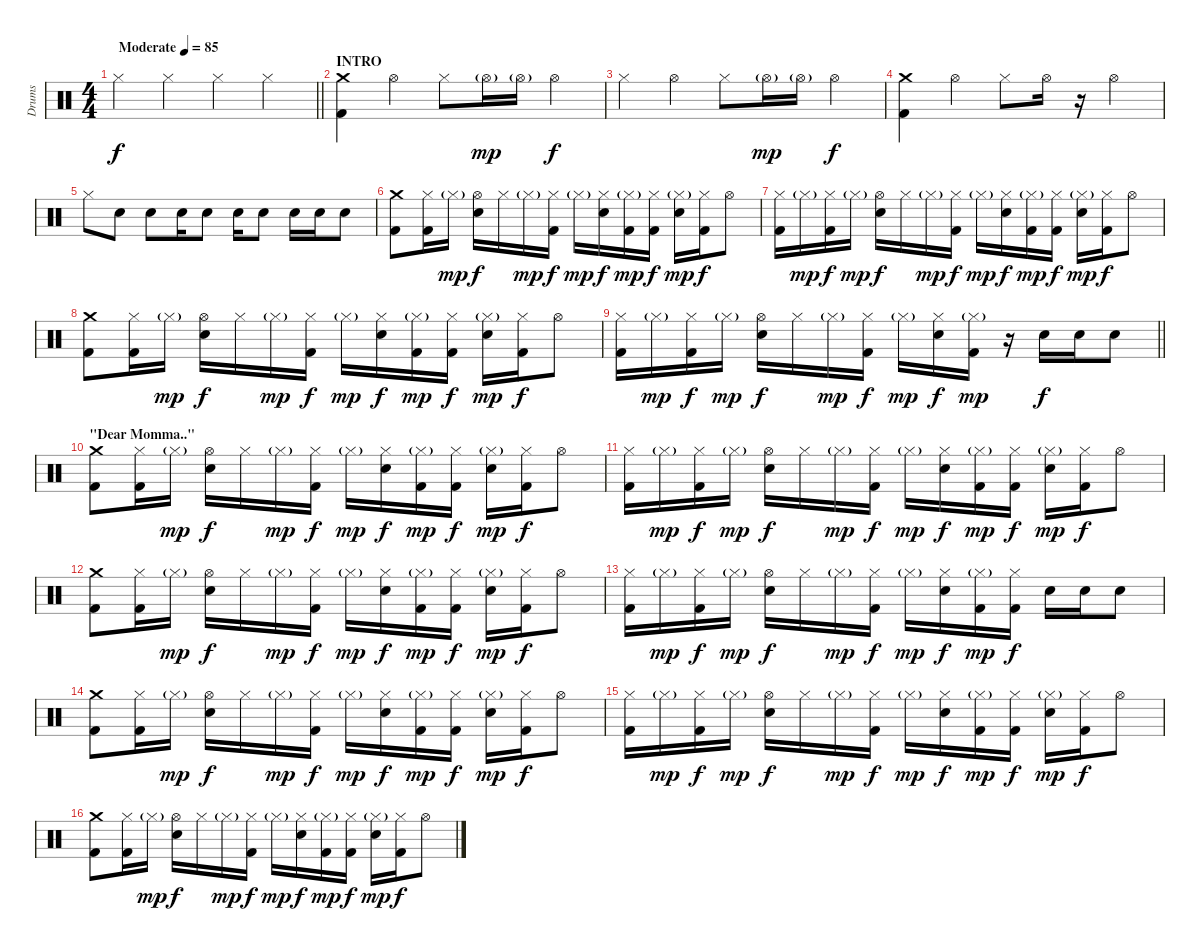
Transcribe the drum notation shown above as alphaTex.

\track ("Drums" "Drums") {instrument percussion}
\staff {score}
\articulation defaults
\ts (4 4)
\tempo (85 "Moderate")
\clef neutral
\barLineRight lightlight
\ks c "Hi-Hat (closed)".4{dy f} "Hi-Hat (closed)".4 "Hi-Hat (closed)".4 "Hi-Hat (closed)".4
|
\section ("" "INTRO")
("Crash medium (hit)" "Kick (hit) 2").4 "Hi-Hat (open)".4 "Hi-Hat (closed)".8 "Hi-Hat (open)"{g}.16{dy mp} "Hi-Hat (open)"{g}.16 "Hi-Hat (open)".4{dy f} |
"Hi-Hat (closed)".4 "Hi-Hat (open)".4 "Hi-Hat (closed)".8 "Hi-Hat (open)"{g}.16{dy mp} "Hi-Hat (open)"{g}.16 "Hi-Hat (open)".4{dy f} |
("Crash medium (hit)" "Kick (hit) 2").4 "Hi-Hat (open)".4 "Hi-Hat (closed)".8 "Hi-Hat (open)".16 r.16 "Hi-Hat (open)".4 |
"Hi-Hat (closed)".8 "Electric Snare (hit)".8 "Electric Snare (hit)".8 "Electric Snare (hit)".16 "Electric Snare (hit)".8 "Electric Snare (hit)".16 "Electric Snare (hit)".8 "Electric Snare (hit)".16 "Electric Snare (hit)".16 "Electric Snare (hit)".8 |
("Crash medium (hit)" "Kick (hit) 2").8 ("Hi-Hat (closed)" "Kick (hit) 2").16 "Hi-Hat (closed)"{g}.16{dy mp} ("Hi-Hat (open)" "Electric Snare (hit)").16{dy f} "Hi-Hat (closed)".16 "Hi-Hat (closed)"{g}.16{dy mp} ("Hi-Hat (closed)" "Kick (hit) 2").16{dy f} "Hi-Hat (closed)"{g}.16{dy mp} ("Hi-Hat (closed)" "Electric Snare (hit)").16{dy f} ("Hi-Hat (closed)"{g} "Kick (hit) 2").16{dy mp} ("Hi-Hat (closed)" "Kick (hit) 2").16{dy f} ("Hi-Hat (closed)"{g} "Electric Snare (hit)").16{dy mp} ("Hi-Hat (closed)" "Kick (hit) 2").16{dy f} "Hi-Hat (open)".8 |
("Hi-Hat (closed)" "Kick (hit) 2").16 "Hi-Hat (closed)"{g}.16{dy mp} ("Hi-Hat (closed)" "Kick (hit) 2").16{dy f} "Hi-Hat (closed)"{g}.16{dy mp} ("Hi-Hat (open)" "Electric Snare (hit)").16{dy f} "Hi-Hat (closed)".16 "Hi-Hat (closed)"{g}.16{dy mp} ("Hi-Hat (closed)" "Kick (hit) 2").16{dy f} "Hi-Hat (closed)"{g}.16{dy mp} ("Hi-Hat (closed)" "Electric Snare (hit)").16{dy f} ("Hi-Hat (closed)"{g} "Kick (hit) 2").16{dy mp} ("Hi-Hat (closed)" "Kick (hit) 2").16{dy f} ("Hi-Hat (closed)"{g} "Electric Snare (hit)").16{dy mp} ("Hi-Hat (closed)" "Kick (hit) 2").16{dy f} "Hi-Hat (open)".8 |
("Crash medium (hit)" "Kick (hit) 2").8 ("Hi-Hat (closed)" "Kick (hit) 2").16 "Hi-Hat (closed)"{g}.16{dy mp} ("Hi-Hat (open)" "Electric Snare (hit)").16{dy f} "Hi-Hat (closed)".16 "Hi-Hat (closed)"{g}.16{dy mp} ("Hi-Hat (closed)" "Kick (hit) 2").16{dy f} "Hi-Hat (closed)"{g}.16{dy mp} ("Hi-Hat (closed)" "Electric Snare (hit)").16{dy f} ("Hi-Hat (closed)"{g} "Kick (hit) 2").16{dy mp} ("Hi-Hat (closed)" "Kick (hit) 2").16{dy f} ("Hi-Hat (closed)"{g} "Electric Snare (hit)").16{dy mp} ("Hi-Hat (closed)" "Kick (hit) 2").16{dy f} "Hi-Hat (open)".8 |
\barLineRight lightlight
("Hi-Hat (closed)" "Kick (hit) 2").16 "Hi-Hat (closed)"{g}.16{dy mp} ("Hi-Hat (closed)" "Kick (hit) 2").16{dy f} "Hi-Hat (closed)"{g}.16{dy mp} ("Hi-Hat (open)" "Electric Snare (hit)").16{dy f} "Hi-Hat (closed)".16 "Hi-Hat (closed)"{g}.16{dy mp} ("Hi-Hat (closed)" "Kick (hit) 2").16{dy f} "Hi-Hat (closed)"{g}.16{dy mp} ("Hi-Hat (closed)" "Electric Snare (hit)").16{dy f} ("Hi-Hat (closed)"{g} "Kick (hit) 2").16{dy mp} r.16 "Electric Snare (hit)".16{dy f} "Electric Snare (hit)".16 "Electric Snare (hit)".8 |
\section ("" "\"Dear Momma..\"")
("Crash medium (hit)" "Kick (hit) 2").8 ("Hi-Hat (closed)" "Kick (hit) 2").16 "Hi-Hat (closed)"{g}.16{dy mp} ("Hi-Hat (open)" "Electric Snare (hit)").16{dy f} "Hi-Hat (closed)".16 "Hi-Hat (closed)"{g}.16{dy mp} ("Hi-Hat (closed)" "Kick (hit) 2").16{dy f} "Hi-Hat (closed)"{g}.16{dy mp} ("Hi-Hat (closed)" "Electric Snare (hit)").16{dy f} ("Hi-Hat (closed)"{g} "Kick (hit) 2").16{dy mp} ("Hi-Hat (closed)" "Kick (hit) 2").16{dy f} ("Hi-Hat (closed)"{g} "Electric Snare (hit)").16{dy mp} ("Hi-Hat (closed)" "Kick (hit) 2").16{dy f} "Hi-Hat (open)".8 |
("Hi-Hat (closed)" "Kick (hit) 2").16 "Hi-Hat (closed)"{g}.16{dy mp} ("Hi-Hat (closed)" "Kick (hit) 2").16{dy f} "Hi-Hat (closed)"{g}.16{dy mp} ("Hi-Hat (open)" "Electric Snare (hit)").16{dy f} "Hi-Hat (closed)".16 "Hi-Hat (closed)"{g}.16{dy mp} ("Hi-Hat (closed)" "Kick (hit) 2").16{dy f} "Hi-Hat (closed)"{g}.16{dy mp} ("Hi-Hat (closed)" "Electric Snare (hit)").16{dy f} ("Hi-Hat (closed)"{g} "Kick (hit) 2").16{dy mp} ("Hi-Hat (closed)" "Kick (hit) 2").16{dy f} ("Hi-Hat (closed)"{g} "Electric Snare (hit)").16{dy mp} ("Hi-Hat (closed)" "Kick (hit) 2").16{dy f} "Hi-Hat (open)".8 |
("Crash medium (hit)" "Kick (hit) 2").8 ("Hi-Hat (closed)" "Kick (hit) 2").16 "Hi-Hat (closed)"{g}.16{dy mp} ("Hi-Hat (open)" "Electric Snare (hit)").16{dy f} "Hi-Hat (closed)".16 "Hi-Hat (closed)"{g}.16{dy mp} ("Hi-Hat (closed)" "Kick (hit) 2").16{dy f} "Hi-Hat (closed)"{g}.16{dy mp} ("Hi-Hat (closed)" "Electric Snare (hit)").16{dy f} ("Hi-Hat (closed)"{g} "Kick (hit) 2").16{dy mp} ("Hi-Hat (closed)" "Kick (hit) 2").16{dy f} ("Hi-Hat (closed)"{g} "Electric Snare (hit)").16{dy mp} ("Hi-Hat (closed)" "Kick (hit) 2").16{dy f} "Hi-Hat (open)".8 |
("Hi-Hat (closed)" "Kick (hit) 2").16 "Hi-Hat (closed)"{g}.16{dy mp} ("Hi-Hat (closed)" "Kick (hit) 2").16{dy f} "Hi-Hat (closed)"{g}.16{dy mp} ("Hi-Hat (open)" "Electric Snare (hit)").16{dy f} "Hi-Hat (closed)".16 "Hi-Hat (closed)"{g}.16{dy mp} ("Hi-Hat (closed)" "Kick (hit) 2").16{dy f} "Hi-Hat (closed)"{g}.16{dy mp} ("Hi-Hat (closed)" "Electric Snare (hit)").16{dy f} ("Hi-Hat (closed)"{g} "Kick (hit) 2").16{dy mp} ("Hi-Hat (closed)" "Kick (hit) 2").16{dy f} "Electric Snare (hit)".16 "Electric Snare (hit)".16 "Electric Snare (hit)".8 |
("Crash medium (hit)" "Kick (hit) 2").8 ("Hi-Hat (closed)" "Kick (hit) 2").16 "Hi-Hat (closed)"{g}.16{dy mp} ("Hi-Hat (open)" "Electric Snare (hit)").16{dy f} "Hi-Hat (closed)".16 "Hi-Hat (closed)"{g}.16{dy mp} ("Hi-Hat (closed)" "Kick (hit) 2").16{dy f} "Hi-Hat (closed)"{g}.16{dy mp} ("Hi-Hat (closed)" "Electric Snare (hit)").16{dy f} ("Hi-Hat (closed)"{g} "Kick (hit) 2").16{dy mp} ("Hi-Hat (closed)" "Kick (hit) 2").16{dy f} ("Hi-Hat (closed)"{g} "Electric Snare (hit)").16{dy mp} ("Hi-Hat (closed)" "Kick (hit) 2").16{dy f} "Hi-Hat (open)".8 |
("Hi-Hat (closed)" "Kick (hit) 2").16 "Hi-Hat (closed)"{g}.16{dy mp} ("Hi-Hat (closed)" "Kick (hit) 2").16{dy f} "Hi-Hat (closed)"{g}.16{dy mp} ("Hi-Hat (open)" "Electric Snare (hit)").16{dy f} "Hi-Hat (closed)".16 "Hi-Hat (closed)"{g}.16{dy mp} ("Hi-Hat (closed)" "Kick (hit) 2").16{dy f} "Hi-Hat (closed)"{g}.16{dy mp} ("Hi-Hat (closed)" "Electric Snare (hit)").16{dy f} ("Hi-Hat (closed)"{g} "Kick (hit) 2").16{dy mp} ("Hi-Hat (closed)" "Kick (hit) 2").16{dy f} ("Hi-Hat (closed)"{g} "Electric Snare (hit)").16{dy mp} ("Hi-Hat (closed)" "Kick (hit) 2").16{dy f} "Hi-Hat (open)".8 |
("Crash medium (hit)" "Kick (hit) 2").8 ("Hi-Hat (closed)" "Kick (hit) 2").16 "Hi-Hat (closed)"{g}.16{dy mp} ("Hi-Hat (open)" "Electric Snare (hit)").16{dy f} "Hi-Hat (closed)".16 "Hi-Hat (closed)"{g}.16{dy mp} ("Hi-Hat (closed)" "Kick (hit) 2").16{dy f} "Hi-Hat (closed)"{g}.16{dy mp} ("Hi-Hat (closed)" "Electric Snare (hit)").16{dy f} ("Hi-Hat (closed)"{g} "Kick (hit) 2").16{dy mp} ("Hi-Hat (closed)" "Kick (hit) 2").16{dy f} ("Hi-Hat (closed)"{g} "Electric Snare (hit)").16{dy mp} ("Hi-Hat (closed)" "Kick (hit) 2").16{dy f} "Hi-Hat (open)".8
